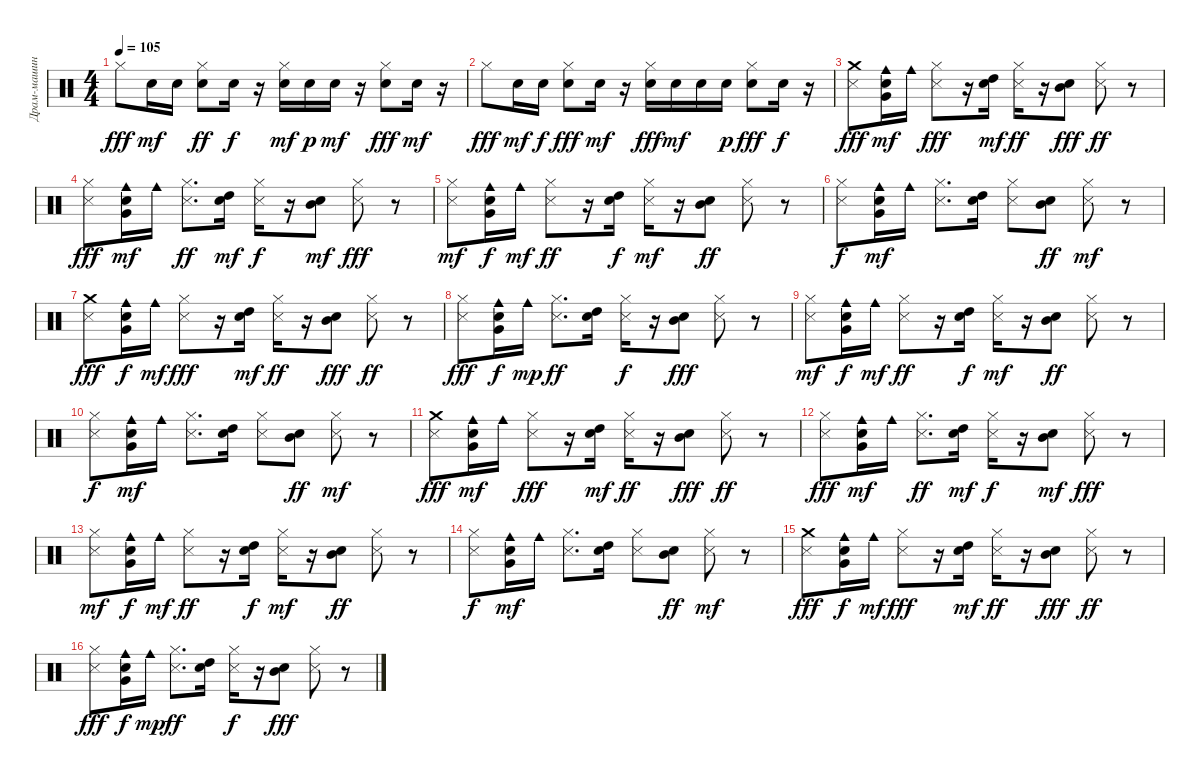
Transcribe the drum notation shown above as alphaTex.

\track ("Драм-машина" "Драм-машин") {instrument percussion}
\staff {score}
\articulation defaults
\ts (4 4)
\tempo 105
\clef neutral
\ks c "Hi-Hat (closed)".8{dy fff} "Snare (hit) 2".16{dy mf} "Snare (hit) 2".16
("Snare (hit) 2" "Hi-Hat (closed)").8{dy ff} "Snare (hit) 2".16{dy f} r.16 ("Hi-Hat (closed)" "Snare (hit) 2").16{dy mf} "Snare (hit) 2".16{dy p} "Snare (hit) 2".16{dy mf} r.16 ("Snare (hit) 2" "Hi-Hat (closed)").8{dy fff} "Snare (hit) 2".16{dy mf} r.16 |
"Hi-Hat (closed)".8{dy fff} "Snare (hit) 2".16{dy mf} "Snare (hit) 2".16{dy f} ("Snare (hit) 2" "Hi-Hat (closed)").8{dy fff} "Snare (hit) 2".16{dy mf} r.16 ("Snare (hit) 2" "Hi-Hat (closed)").16{dy fff} "Snare (hit) 2".16{dy mf} "Snare (hit) 2".16 "Snare (hit) 2".16{dy p} ("Snare (hit) 2" "Hi-Hat (closed)").8{dy fff} "Snare (hit) 2".16{dy f} r.16 |
("Metronome (hit)" "Crash medium (hit)").8{dy fff} ("Cowbell medium (hit)" "Snare (hit) 2" "Very Low Tom (hit)").16{dy mf} "Cowbell medium (hit)".16 ("Metronome (hit)" "Hi-Hat (closed)").8{dy fff} r.16 ("Snare (hit) 2" "High Tom (hit)").16{dy mf} ("Metronome (hit)" "Hi-Hat (closed)").16{dy ff} r.16 ("Snare (hit) 2" "Mid Tom (hit)").8{dy fff} ("Metronome (hit)" "Hi-Hat (closed)").8{dy ff} r.8 |
("Metronome (hit)" "Hi-Hat (closed)").8{dy fff} ("Snare (hit) 2" "Cowbell medium (hit)" "Very Low Tom (hit)").16{dy mf} "Cowbell medium (hit)".16 ("Metronome (hit)" "Hi-Hat (closed)").8{d dy ff} ("Snare (hit) 2" "High Tom (hit)").16{dy mf} ("Metronome (hit)" "Hi-Hat (closed)").16{dy f} r.16 ("Snare (hit) 2" "Mid Tom (hit)").8{dy mf} ("Metronome (hit)" "Hi-Hat (closed)").8{dy fff} r.8 |
("Metronome (hit)" "Hi-Hat (closed)").8{dy mf} ("Very Low Tom (hit)" "Snare (hit) 2" "Cowbell medium (hit)").16{dy f} "Cowbell medium (hit)".16{dy mf} ("Metronome (hit)" "Hi-Hat (closed)").8{dy ff} r.16 ("Snare (hit) 2" "High Tom (hit)").16{dy f} ("Metronome (hit)" "Hi-Hat (closed)").16{dy mf} r.16 ("Snare (hit) 2" "Mid Tom (hit)").8{dy ff} ("Metronome (hit)" "Hi-Hat (closed)").8 r.8 |
("Metronome (hit)" "Hi-Hat (closed)").8{dy f} ("Very Low Tom (hit)" "Cowbell medium (hit)" "Snare (hit) 2").16{dy mf} "Cowbell medium (hit)".16 ("Metronome (hit)" "Hi-Hat (closed)").8{d} ("High Tom (hit)" "Snare (hit) 2").16 ("Metronome (hit)" "Hi-Hat (closed)").8 ("Mid Tom (hit)" "Snare (hit) 2").8{dy ff} ("Metronome (hit)" "Hi-Hat (closed)").8{dy mf} r.8 |
("Crash medium (hit)" "Metronome (hit)").8{dy fff} ("Snare (hit) 2" "Cowbell medium (hit)" "Very Low Tom (hit)").16{dy f} "Cowbell medium (hit)".16{dy mf} ("Metronome (hit)" "Hi-Hat (closed)").8{dy fff} r.16 ("Snare (hit) 2" "High Tom (hit)").16{dy mf} ("Metronome (hit)" "Hi-Hat (closed)").16{dy ff} r.16 ("Snare (hit) 2" "Mid Tom (hit)").8{dy fff} ("Metronome (hit)" "Hi-Hat (closed)").8{dy ff} r.8 |
("Metronome (hit)" "Hi-Hat (closed)").8{dy fff} ("Snare (hit) 2" "Cowbell medium (hit)" "Very Low Tom (hit)").16{dy f} "Cowbell medium (hit)".16{dy mp} ("Metronome (hit)" "Hi-Hat (closed)").8{d dy ff} ("Snare (hit) 2" "High Tom (hit)").16 ("Metronome (hit)" "Hi-Hat (closed)").16{dy f} r.16 ("Snare (hit) 2" "Mid Tom (hit)").8{dy fff} ("Metronome (hit)" "Hi-Hat (closed)").8 r.8 |
("Metronome (hit)" "Hi-Hat (closed)").8{dy mf} ("Snare (hit) 2" "Cowbell medium (hit)" "Very Low Tom (hit)").16{dy f} "Cowbell medium (hit)".16{dy mf} ("Metronome (hit)" "Hi-Hat (closed)").8{dy ff} r.16 ("High Tom (hit)" "Snare (hit) 2").16{dy f} ("Metronome (hit)" "Hi-Hat (closed)").16{dy mf} r.16 ("Mid Tom (hit)" "Snare (hit) 2").8{dy ff} ("Metronome (hit)" "Hi-Hat (closed)").8 r.8 |
("Metronome (hit)" "Hi-Hat (closed)").8{dy f} ("Snare (hit) 2" "Cowbell medium (hit)" "Very Low Tom (hit)").16{dy mf} "Cowbell medium (hit)".16 ("Metronome (hit)" "Hi-Hat (closed)").8{d} ("Snare (hit) 2" "High Tom (hit)").16 ("Metronome (hit)" "Hi-Hat (closed)").8 ("Snare (hit) 2" "Mid Tom (hit)").8{dy ff} ("Metronome (hit)" "Hi-Hat (closed)").8{dy mf} r.8 |
("Metronome (hit)" "Crash medium (hit)").8{dy fff} ("Cowbell medium (hit)" "Snare (hit) 2" "Very Low Tom (hit)").16{dy mf} "Cowbell medium (hit)".16 ("Metronome (hit)" "Hi-Hat (closed)").8{dy fff} r.16 ("Snare (hit) 2" "High Tom (hit)").16{dy mf} ("Metronome (hit)" "Hi-Hat (closed)").16{dy ff} r.16 ("Snare (hit) 2" "Mid Tom (hit)").8{dy fff} ("Metronome (hit)" "Hi-Hat (closed)").8{dy ff} r.8 |
("Metronome (hit)" "Hi-Hat (closed)").8{dy fff} ("Snare (hit) 2" "Cowbell medium (hit)" "Very Low Tom (hit)").16{dy mf} "Cowbell medium (hit)".16 ("Metronome (hit)" "Hi-Hat (closed)").8{d dy ff} ("Snare (hit) 2" "High Tom (hit)").16{dy mf} ("Metronome (hit)" "Hi-Hat (closed)").16{dy f} r.16 ("Snare (hit) 2" "Mid Tom (hit)").8{dy mf} ("Metronome (hit)" "Hi-Hat (closed)").8{dy fff} r.8 |
("Metronome (hit)" "Hi-Hat (closed)").8{dy mf} ("Very Low Tom (hit)" "Snare (hit) 2" "Cowbell medium (hit)").16{dy f} "Cowbell medium (hit)".16{dy mf} ("Metronome (hit)" "Hi-Hat (closed)").8{dy ff} r.16 ("Snare (hit) 2" "High Tom (hit)").16{dy f} ("Metronome (hit)" "Hi-Hat (closed)").16{dy mf} r.16 ("Snare (hit) 2" "Mid Tom (hit)").8{dy ff} ("Metronome (hit)" "Hi-Hat (closed)").8 r.8 |
("Metronome (hit)" "Hi-Hat (closed)").8{dy f} ("Very Low Tom (hit)" "Cowbell medium (hit)" "Snare (hit) 2").16{dy mf} "Cowbell medium (hit)".16 ("Metronome (hit)" "Hi-Hat (closed)").8{d} ("High Tom (hit)" "Snare (hit) 2").16 ("Metronome (hit)" "Hi-Hat (closed)").8 ("Mid Tom (hit)" "Snare (hit) 2").8{dy ff} ("Metronome (hit)" "Hi-Hat (closed)").8{dy mf} r.8 |
("Crash medium (hit)" "Metronome (hit)").8{dy fff} ("Snare (hit) 2" "Cowbell medium (hit)" "Very Low Tom (hit)").16{dy f} "Cowbell medium (hit)".16{dy mf} ("Metronome (hit)" "Hi-Hat (closed)").8{dy fff} r.16 ("Snare (hit) 2" "High Tom (hit)").16{dy mf} ("Metronome (hit)" "Hi-Hat (closed)").16{dy ff} r.16 ("Snare (hit) 2" "Mid Tom (hit)").8{dy fff} ("Metronome (hit)" "Hi-Hat (closed)").8{dy ff} r.8 |
("Metronome (hit)" "Hi-Hat (closed)").8{dy fff} ("Snare (hit) 2" "Cowbell medium (hit)" "Very Low Tom (hit)").16{dy f} "Cowbell medium (hit)".16{dy mp} ("Metronome (hit)" "Hi-Hat (closed)").8{d dy ff} ("Snare (hit) 2" "High Tom (hit)").16 ("Metronome (hit)" "Hi-Hat (closed)").16{dy f} r.16 ("Snare (hit) 2" "Mid Tom (hit)").8{dy fff} ("Metronome (hit)" "Hi-Hat (closed)").8 r.8
